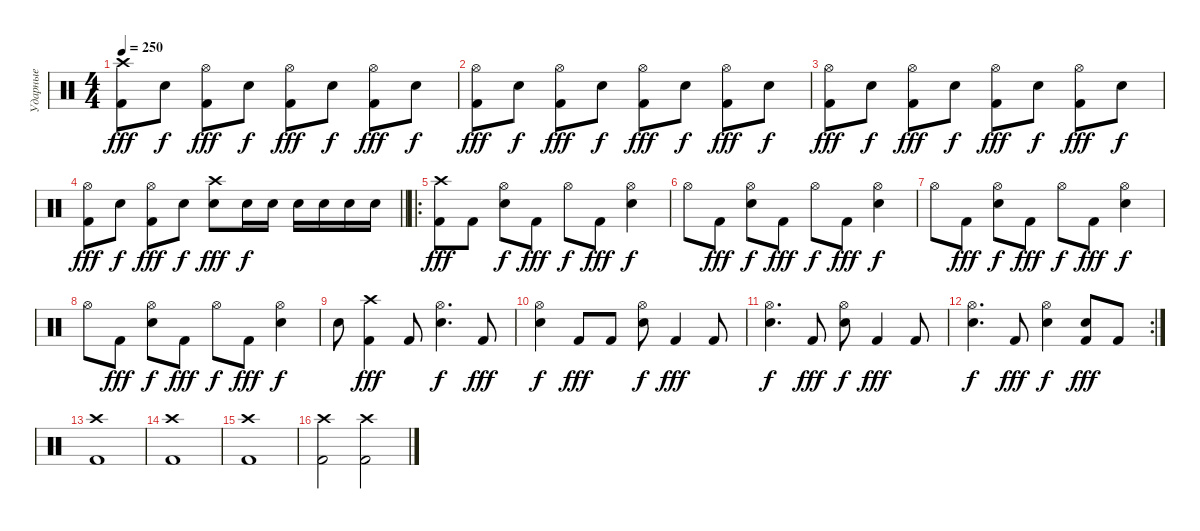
\track ("Ударные" "Ударные") {instrument percussion}
\staff {score}
\articulation defaults
\ts (4 4)
\tempo 250
\clef neutral
\ks c
("Kick (hit) 2" "Crash high (hit)").8{dy fff} "Snare (hit) 2".8{dy f} ("Kick (hit) 2" "Hi-Hat (open)").8{dy fff} "Snare (hit) 2".8{dy f} ("Kick (hit) 2" "Hi-Hat (open)").8{dy fff} "Snare (hit) 2".8{dy f} ("Kick (hit) 2" "Hi-Hat (open)").8{dy fff} "Snare (hit) 2".8{dy f} |
("Kick (hit) 2" "Hi-Hat (open)").8{dy fff} "Snare (hit) 2".8{dy f} ("Kick (hit) 2" "Hi-Hat (open)").8{dy fff} "Snare (hit) 2".8{dy f} ("Kick (hit) 2" "Hi-Hat (open)").8{dy fff} "Snare (hit) 2".8{dy f} ("Kick (hit) 2" "Hi-Hat (open)").8{dy fff} "Snare (hit) 2".8{dy f} |
("Kick (hit) 2" "Hi-Hat (open)").8{dy fff} "Snare (hit) 2".8{dy f} ("Kick (hit) 2" "Hi-Hat (open)").8{dy fff} "Snare (hit) 2".8{dy f} ("Kick (hit) 2" "Hi-Hat (open)").8{dy fff} "Snare (hit) 2".8{dy f} ("Kick (hit) 2" "Hi-Hat (open)").8{dy fff} "Snare (hit) 2".8{dy f} |
\barLineRight lightlight
("Kick (hit) 2" "Hi-Hat (open)").8{dy fff} "Snare (hit) 2".8{dy f} ("Kick (hit) 2" "Hi-Hat (open)").8{dy fff} "Snare (hit) 2".8{dy f} ("Snare (hit) 2" "Crash high (hit)").8{dy fff} "Snare (hit) 2".16{dy f} "Snare (hit) 2".16 "Snare (hit) 2".16 "Snare (hit) 2".16 "Snare (hit) 2".16 "Snare (hit) 2".16 |
\ro
("Kick (hit) 2" "Crash high (hit)").8{dy fff} "Kick (hit) 2".8 ("Snare (hit) 2" "Hi-Hat (open)").8{dy f} "Kick (hit) 2".8{dy fff} "Hi-Hat (open)".8{dy f} "Kick (hit) 2".8{dy fff} ("Snare (hit) 2" "Hi-Hat (open)").4{dy f} |
"Hi-Hat (open)".8 "Kick (hit) 2".8{dy fff} ("Snare (hit) 2" "Hi-Hat (open)").8{dy f} "Kick (hit) 2".8{dy fff} "Hi-Hat (open)".8{dy f} "Kick (hit) 2".8{dy fff} ("Snare (hit) 2" "Hi-Hat (open)").4{dy f} |
"Hi-Hat (open)".8 "Kick (hit) 2".8{dy fff} ("Snare (hit) 2" "Hi-Hat (open)").8{dy f} "Kick (hit) 2".8{dy fff} "Hi-Hat (open)".8{dy f} "Kick (hit) 2".8{dy fff} ("Snare (hit) 2" "Hi-Hat (open)").4{dy f} |
"Hi-Hat (open)".8 "Kick (hit) 2".8{dy fff} ("Snare (hit) 2" "Hi-Hat (open)").8{dy f} "Kick (hit) 2".8{dy fff} "Hi-Hat (open)".8{dy f} "Kick (hit) 2".8{dy fff} ("Snare (hit) 2" "Hi-Hat (open)").4{dy f} |
"Snare (hit) 2".8 ("Kick (hit) 2" "Crash high (hit)").4{dy fff} "Kick (hit) 2".8 ("Snare (hit) 2" "Hi-Hat (open)").4{d dy f} "Kick (hit) 2".8{dy fff} |
("Snare (hit) 2" "Hi-Hat (open)").4{dy f} "Kick (hit) 2".8{dy fff} "Kick (hit) 2".8 ("Snare (hit) 2" "Hi-Hat (open)").8{dy f} "Kick (hit) 2".4{dy fff} "Kick (hit) 2".8 |
("Snare (hit) 2" "Hi-Hat (open)").4{d dy f} "Kick (hit) 2".8{dy fff} ("Snare (hit) 2" "Hi-Hat (open)").8{dy f} "Kick (hit) 2".4{dy fff} "Kick (hit) 2".8 |
\rc 2
("Snare (hit) 2" "Hi-Hat (open)").4{d dy f} "Kick (hit) 2".8{dy fff} ("Snare (hit) 2" "Hi-Hat (open)").4{dy f} ("Kick (hit) 2" "Snare (hit) 2").8{dy fff} "Kick (hit) 2".8 |
("Kick (hit) 2" "Crash high (hit)").1 |
("Kick (hit) 2" "Crash high (hit)").1 |
("Kick (hit) 2" "Crash high (hit)").1 |
("Kick (hit) 2" "Crash high (hit)").2 ("Kick (hit) 2" "Crash high (hit)").2
